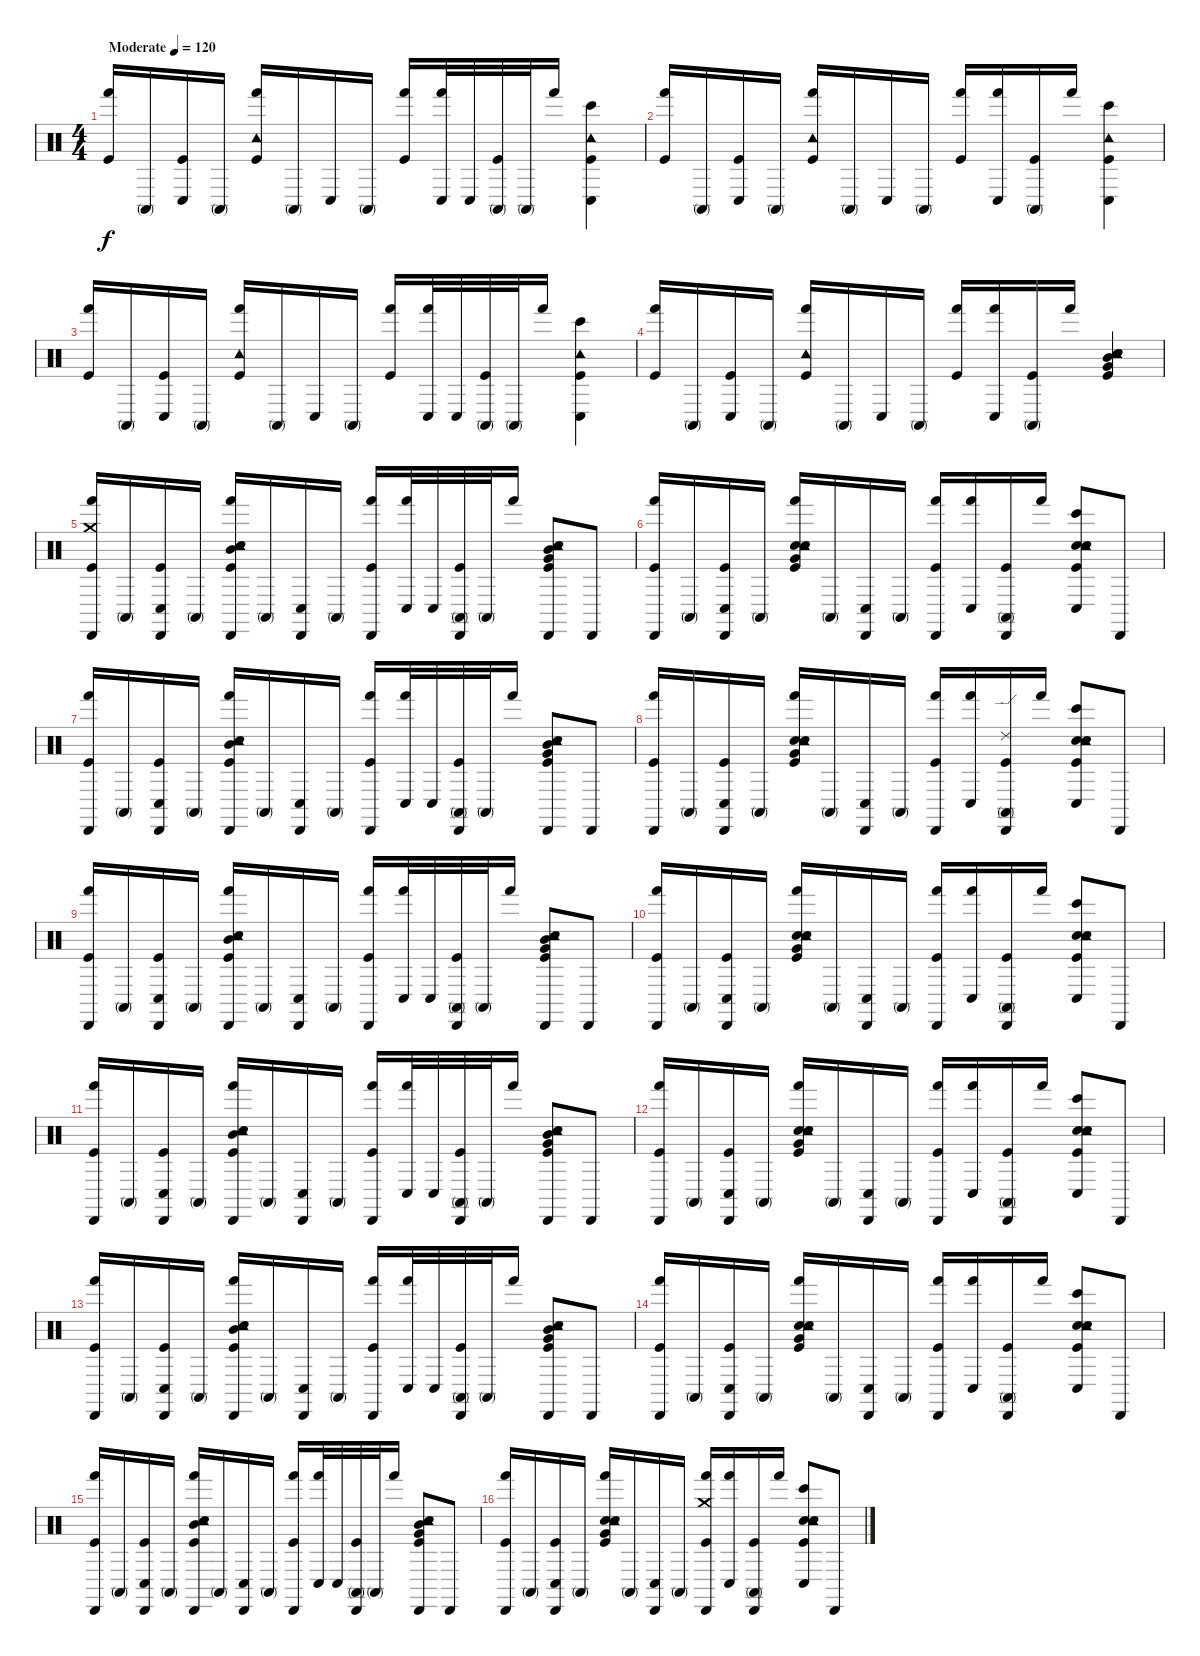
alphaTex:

\track "" {instrument percussion}
\staff {score}
\articulation defaults
\ts (4 4)
\tempo (120 "Moderate")
\clef neutral
\ks c
("Hand (hit)" "Kick (hit)").16{dy f} "Conga high (mute)".16 ("Conga low (hit)" "Kick (hit)").16 "Conga high (mute)".16 ("Hand (hit)" "Kick (hit)" "Tambourine (hit)").16 "Conga high (mute)".16 "Conga low (hit)".16 "Conga high (mute)".16 ("Hand (hit)" "Kick (hit)").16 ("Conga low (hit)" "Hand (hit)").32 "Conga low (hit)".32 ("Conga high (mute)" "Kick (hit)").32 "Conga high (mute)".32 "Hand (hit)".16 ("Kick (hit)" "Tambourine (hit)" "Bongo High (hit)" "Conga low (hit)").4 |
("Hand (hit)" "Kick (hit)").16 "Conga high (mute)".16 ("Conga low (hit)" "Kick (hit)").16 "Conga high (mute)".16 ("Hand (hit)" "Kick (hit)" "Tambourine (hit)").16 "Conga high (mute)".16 "Conga low (hit)".16 "Conga high (mute)".16 ("Hand (hit)" "Kick (hit)").16 ("Conga low (hit)" "Hand (hit)").16 ("Conga high (mute)" "Kick (hit)").16 "Hand (hit)".16 ("Kick (hit)" "Tambourine (hit)" "Bongo High (hit)" "Conga low (hit)").4 |
("Hand (hit)" "Kick (hit)").16 "Conga high (mute)".16 ("Conga low (hit)" "Kick (hit)").16 "Conga high (mute)".16 ("Hand (hit)" "Kick (hit)" "Tambourine (hit)").16 "Conga high (mute)".16 "Conga low (hit)".16 "Conga high (mute)".16 ("Hand (hit)" "Kick (hit)").16 ("Conga low (hit)" "Hand (hit)").32 "Conga low (hit)".32 ("Conga high (mute)" "Kick (hit)").32 "Conga high (mute)".32 "Hand (hit)".16 ("Kick (hit)" "Tambourine (hit)" "Bongo High (hit)" "Conga low (hit)").4 |
("Hand (hit)" "Kick (hit)").16 "Conga high (mute)".16 ("Conga low (hit)" "Kick (hit)").16 "Conga high (mute)".16 ("Hand (hit)" "Kick (hit)" "Tambourine (hit)").16 "Conga high (mute)".16 "Conga low (hit)".16 "Conga high (mute)".16 ("Hand (hit)" "Kick (hit)").16 ("Conga low (hit)" "Hand (hit)").16 ("Conga high (mute)" "Kick (hit)").16 "Hand (hit)".16 ("Kick (hit)" "Tambourine (hit)" "Very Low Tom (hit)" "Mid Tom (hit)" "Snare (hit) 2" "Electric Snare (hit)").4 |
("Hand (hit)" "Kick (hit)" "Cabasa (hit)" "Crash medium (hit)").16 "Conga high (mute)".16 ("Conga low (hit)" "Kick (hit)" "Cabasa (hit)").16 "Conga high (mute)".16 ("Hand (hit)" "Kick (hit)" "Tambourine (hit)" "Snare (hit) 2" "Cabasa (hit)" "Mid Tom (hit)").16 "Conga high (mute)".16 ("Conga low (hit)" "Cabasa (hit)").16 "Conga high (mute)".16 ("Hand (hit)" "Kick (hit)" "Cabasa (hit)").16 ("Conga low (hit)" "Hand (hit)").32 "Conga low (hit)".32 ("Conga high (mute)" "Kick (hit)" "Cabasa (hit)").32 "Conga high (mute)".32 "Hand (hit)".16 ("Kick (hit)" "Snare (hit) 2" "Tambourine (hit)" "Cabasa (hit)" "Mid Tom (hit)" "Very Low Tom (hit)").8 "Cabasa (hit)".8 |
("Hand (hit)" "Kick (hit)" "Cabasa (hit)").16 "Conga high (mute)".16 ("Conga low (hit)" "Kick (hit)" "Cabasa (hit)").16 "Conga high (mute)".16 ("Hand (hit)" "Kick (hit)" "Snare (hit) 2" "Tambourine (hit)" "Electric Snare (hit)" "Very Low Tom (hit)").16 "Conga high (mute)".16 ("Conga low (hit)" "Cabasa (hit)").16 "Conga high (mute)".16 ("Hand (hit)" "Kick (hit)" "Cabasa (hit)").16 ("Conga low (hit)" "Hand (hit)").16 ("Conga high (mute)" "Kick (hit)" "Cabasa (hit)").16 "Hand (hit)".16 ("Kick (hit)" "Snare (hit) 2" "Tambourine (hit)" "Bongo High (hit)" "Conga low (hit)" "Electric Snare (hit)").8 "Cabasa (hit)".8 |
("Hand (hit)" "Kick (hit)" "Cabasa (hit)").16 "Conga high (mute)".16 ("Conga low (hit)" "Kick (hit)" "Cabasa (hit)").16 "Conga high (mute)".16 ("Hand (hit)" "Kick (hit)" "Tambourine (hit)" "Snare (hit) 2" "Cabasa (hit)" "Mid Tom (hit)").16 "Conga high (mute)".16 ("Conga low (hit)" "Cabasa (hit)").16 "Conga high (mute)".16 ("Hand (hit)" "Kick (hit)" "Cabasa (hit)").16 ("Conga low (hit)" "Hand (hit)").32 "Conga low (hit)".32 ("Conga high (mute)" "Kick (hit)" "Cabasa (hit)").32 "Conga high (mute)".32 "Hand (hit)".16 ("Kick (hit)" "Snare (hit) 2" "Tambourine (hit)" "Cabasa (hit)" "Mid Tom (hit)" "Very Low Tom (hit)").8 "Cabasa (hit)".8 |
("Hand (hit)" "Kick (hit)" "Cabasa (hit)").16 "Conga high (mute)".16 ("Conga low (hit)" "Kick (hit)" "Cabasa (hit)").16 "Conga high (mute)".16 ("Hand (hit)" "Kick (hit)" "Snare (hit) 2" "Tambourine (hit)" "Electric Snare (hit)" "Very Low Tom (hit)").16 "Conga high (mute)".16 ("Conga low (hit)" "Cabasa (hit)").16 "Conga high (mute)".16 ("Hand (hit)" "Kick (hit)" "Cabasa (hit)").16 ("Conga low (hit)" "Hand (hit)").16 ("Conga high (mute)" "Kick (hit)" "Cabasa (hit)" "Ride (edge) 2").16 "Hand (hit)".16 ("Kick (hit)" "Snare (hit) 2" "Tambourine (hit)" "Bongo High (hit)" "Conga low (hit)" "Electric Snare (hit)").8 "Cabasa (hit)".8 |
("Hand (hit)" "Kick (hit)" "Cabasa (hit)").16 "Conga high (mute)".16 ("Conga low (hit)" "Kick (hit)" "Cabasa (hit)").16 "Conga high (mute)".16 ("Hand (hit)" "Kick (hit)" "Tambourine (hit)" "Snare (hit) 2" "Cabasa (hit)" "Mid Tom (hit)").16 "Conga high (mute)".16 ("Conga low (hit)" "Cabasa (hit)").16 "Conga high (mute)".16 ("Hand (hit)" "Kick (hit)" "Cabasa (hit)").16 ("Conga low (hit)" "Hand (hit)").32 "Conga low (hit)".32 ("Conga high (mute)" "Kick (hit)" "Cabasa (hit)").32 "Conga high (mute)".32 "Hand (hit)".16 ("Kick (hit)" "Snare (hit) 2" "Tambourine (hit)" "Cabasa (hit)" "Mid Tom (hit)" "Very Low Tom (hit)").8 "Cabasa (hit)".8 |
("Hand (hit)" "Kick (hit)" "Cabasa (hit)").16 "Conga high (mute)".16 ("Conga low (hit)" "Kick (hit)" "Cabasa (hit)").16 "Conga high (mute)".16 ("Hand (hit)" "Kick (hit)" "Snare (hit) 2" "Tambourine (hit)" "Electric Snare (hit)" "Very Low Tom (hit)").16 "Conga high (mute)".16 ("Conga low (hit)" "Cabasa (hit)").16 "Conga high (mute)".16 ("Hand (hit)" "Kick (hit)" "Cabasa (hit)").16 ("Conga low (hit)" "Hand (hit)").16 ("Conga high (mute)" "Kick (hit)" "Cabasa (hit)").16 "Hand (hit)".16 ("Kick (hit)" "Snare (hit) 2" "Tambourine (hit)" "Bongo High (hit)" "Conga low (hit)" "Electric Snare (hit)").8 "Cabasa (hit)".8 |
("Hand (hit)" "Kick (hit)" "Cabasa (hit)").16 "Conga high (mute)".16 ("Conga low (hit)" "Kick (hit)" "Cabasa (hit)").16 "Conga high (mute)".16 ("Hand (hit)" "Kick (hit)" "Tambourine (hit)" "Snare (hit) 2" "Cabasa (hit)" "Mid Tom (hit)").16 "Conga high (mute)".16 ("Conga low (hit)" "Cabasa (hit)").16 "Conga high (mute)".16 ("Hand (hit)" "Kick (hit)" "Cabasa (hit)").16 ("Conga low (hit)" "Hand (hit)").32 "Conga low (hit)".32 ("Conga high (mute)" "Kick (hit)" "Cabasa (hit)").32 "Conga high (mute)".32 "Hand (hit)".16 ("Kick (hit)" "Snare (hit) 2" "Tambourine (hit)" "Cabasa (hit)" "Mid Tom (hit)" "Very Low Tom (hit)").8 "Cabasa (hit)".8 |
("Hand (hit)" "Kick (hit)" "Cabasa (hit)").16 "Conga high (mute)".16 ("Conga low (hit)" "Kick (hit)" "Cabasa (hit)").16 "Conga high (mute)".16 ("Hand (hit)" "Kick (hit)" "Snare (hit) 2" "Tambourine (hit)" "Electric Snare (hit)" "Very Low Tom (hit)").16 "Conga high (mute)".16 ("Conga low (hit)" "Cabasa (hit)").16 "Conga high (mute)".16 ("Hand (hit)" "Kick (hit)" "Cabasa (hit)").16 ("Conga low (hit)" "Hand (hit)").16 ("Conga high (mute)" "Kick (hit)" "Cabasa (hit)").16 "Hand (hit)".16 ("Kick (hit)" "Snare (hit) 2" "Tambourine (hit)" "Bongo High (hit)" "Conga low (hit)" "Electric Snare (hit)").8 "Cabasa (hit)".8 |
("Hand (hit)" "Kick (hit)" "Cabasa (hit)").16 "Conga high (mute)".16 ("Conga low (hit)" "Kick (hit)" "Cabasa (hit)").16 "Conga high (mute)".16 ("Hand (hit)" "Kick (hit)" "Tambourine (hit)" "Snare (hit) 2" "Cabasa (hit)" "Mid Tom (hit)").16 "Conga high (mute)".16 ("Conga low (hit)" "Cabasa (hit)").16 "Conga high (mute)".16 ("Hand (hit)" "Kick (hit)" "Cabasa (hit)").16 ("Conga low (hit)" "Hand (hit)").32 "Conga low (hit)".32 ("Conga high (mute)" "Kick (hit)" "Cabasa (hit)").32 "Conga high (mute)".32 "Hand (hit)".16 ("Kick (hit)" "Snare (hit) 2" "Tambourine (hit)" "Cabasa (hit)" "Mid Tom (hit)" "Very Low Tom (hit)").8 "Cabasa (hit)".8 |
("Hand (hit)" "Kick (hit)" "Cabasa (hit)").16 "Conga high (mute)".16 ("Conga low (hit)" "Kick (hit)" "Cabasa (hit)").16 "Conga high (mute)".16 ("Hand (hit)" "Kick (hit)" "Snare (hit) 2" "Tambourine (hit)" "Electric Snare (hit)" "Very Low Tom (hit)").16 "Conga high (mute)".16 ("Conga low (hit)" "Cabasa (hit)").16 "Conga high (mute)".16 ("Hand (hit)" "Kick (hit)" "Cabasa (hit)").16 ("Conga low (hit)" "Hand (hit)").16 ("Conga high (mute)" "Kick (hit)" "Cabasa (hit)").16 "Hand (hit)".16 ("Kick (hit)" "Snare (hit) 2" "Tambourine (hit)" "Bongo High (hit)" "Conga low (hit)" "Electric Snare (hit)").8 "Cabasa (hit)".8 |
("Hand (hit)" "Kick (hit)" "Cabasa (hit)").16 "Conga high (mute)".16 ("Conga low (hit)" "Kick (hit)" "Cabasa (hit)").16 "Conga high (mute)".16 ("Hand (hit)" "Kick (hit)" "Tambourine (hit)" "Snare (hit) 2" "Cabasa (hit)" "Mid Tom (hit)").16 "Conga high (mute)".16 ("Conga low (hit)" "Cabasa (hit)").16 "Conga high (mute)".16 ("Hand (hit)" "Kick (hit)" "Cabasa (hit)").16 ("Conga low (hit)" "Hand (hit)").32 "Conga low (hit)".32 ("Conga high (mute)" "Kick (hit)" "Cabasa (hit)").32 "Conga high (mute)".32 "Hand (hit)".16 ("Kick (hit)" "Snare (hit) 2" "Tambourine (hit)" "Cabasa (hit)" "Mid Tom (hit)" "Very Low Tom (hit)").8 "Cabasa (hit)".8 |
("Hand (hit)" "Kick (hit)" "Cabasa (hit)").16 "Conga high (mute)".16 ("Conga low (hit)" "Kick (hit)" "Cabasa (hit)").16 "Conga high (mute)".16 ("Hand (hit)" "Kick (hit)" "Snare (hit) 2" "Tambourine (hit)" "Electric Snare (hit)" "Very Low Tom (hit)").16 "Conga high (mute)".16 ("Conga low (hit)" "Cabasa (hit)").16 "Conga high (mute)".16 ("Hand (hit)" "Kick (hit)" "Cabasa (hit)" "Crash medium (hit)").16 ("Conga low (hit)" "Hand (hit)").16 ("Conga high (mute)" "Kick (hit)" "Cabasa (hit)").16 "Hand (hit)".16 ("Kick (hit)" "Snare (hit) 2" "Tambourine (hit)" "Bongo High (hit)" "Conga low (hit)" "Electric Snare (hit)").8 "Cabasa (hit)".8
